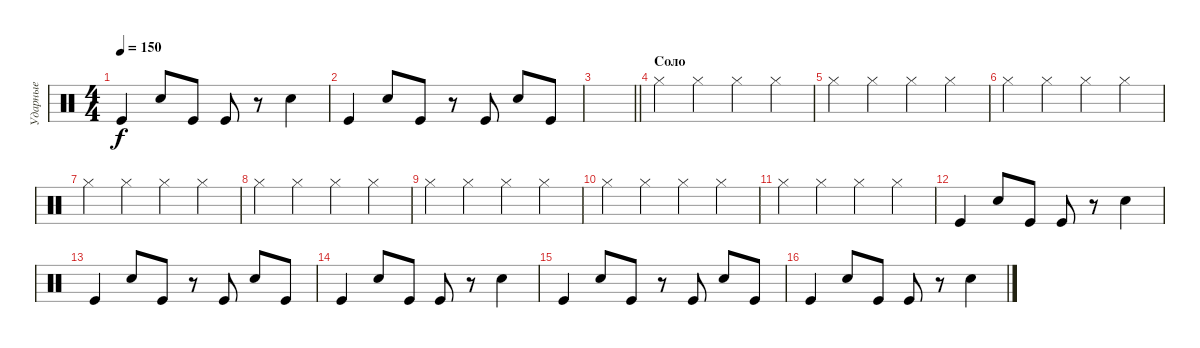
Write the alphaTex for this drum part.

\track ("Ударные" "Ударные") {instrument percussion}
\staff {score}
\articulation defaults
\ts (4 4)
\tempo 150
\clef neutral
\ks c "Kick (hit)".4{dy f} "Snare (hit) 2".8 "Kick (hit)".8 "Kick (hit)".8
r.8 "Snare (hit) 2".4 |
"Kick (hit)".4 "Snare (hit) 2".8 "Kick (hit)".8 r.8 "Kick (hit)".8 "Snare (hit) 2".8 "Kick (hit)".8 |
\barLineRight lightlight
|
\section ("" "Соло")
"Hi-Hat (closed)".4 "Hi-Hat (closed)".4 "Hi-Hat (closed)".4 "Hi-Hat (closed)".4 |
"Hi-Hat (closed)".4 "Hi-Hat (closed)".4 "Hi-Hat (closed)".4 "Hi-Hat (closed)".4 |
"Hi-Hat (closed)".4 "Hi-Hat (closed)".4 "Hi-Hat (closed)".4 "Hi-Hat (closed)".4 |
"Hi-Hat (closed)".4 "Hi-Hat (closed)".4 "Hi-Hat (closed)".4 "Hi-Hat (closed)".4 |
"Hi-Hat (closed)".4 "Hi-Hat (closed)".4 "Hi-Hat (closed)".4 "Hi-Hat (closed)".4 |
"Hi-Hat (closed)".4 "Hi-Hat (closed)".4 "Hi-Hat (closed)".4 "Hi-Hat (closed)".4 |
"Hi-Hat (closed)".4 "Hi-Hat (closed)".4 "Hi-Hat (closed)".4 "Hi-Hat (closed)".4 |
"Hi-Hat (closed)".4 "Hi-Hat (closed)".4 "Hi-Hat (closed)".4 "Hi-Hat (closed)".4 |
"Kick (hit)".4 "Snare (hit) 2".8 "Kick (hit)".8 "Kick (hit)".8 r.8 "Snare (hit) 2".4 |
"Kick (hit)".4 "Snare (hit) 2".8 "Kick (hit)".8 r.8 "Kick (hit)".8 "Snare (hit) 2".8 "Kick (hit)".8 |
"Kick (hit)".4 "Snare (hit) 2".8 "Kick (hit)".8 "Kick (hit)".8 r.8 "Snare (hit) 2".4 |
"Kick (hit)".4 "Snare (hit) 2".8 "Kick (hit)".8 r.8 "Kick (hit)".8 "Snare (hit) 2".8 "Kick (hit)".8 |
"Kick (hit)".4 "Snare (hit) 2".8 "Kick (hit)".8 "Kick (hit)".8 r.8 "Snare (hit) 2".4
